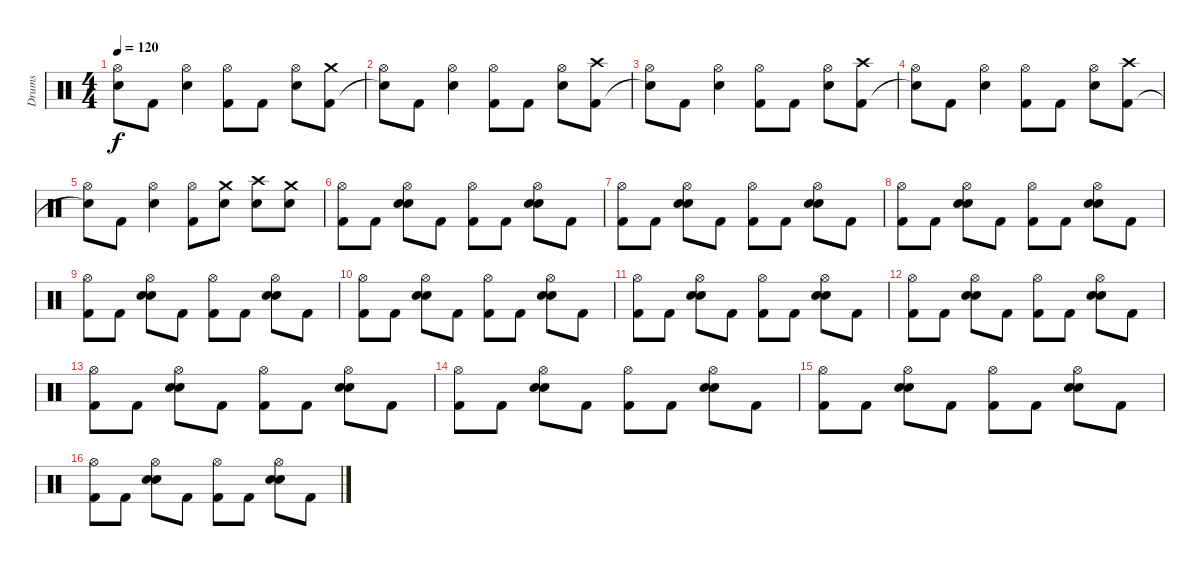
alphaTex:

\track ("Drums" "Drums") {instrument percussion}
\staff {score}
\articulation defaults
\ts (4 4)
\tempo 120
\clef neutral
\ks c
("Hi-Hat (open)" "Snare (hit)"{t}).8{dy f} "Kick (hit) 2".8 ("Hi-Hat (open)" "Electric Snare (hit)").4 ("Hi-Hat (open)" "Kick (hit) 2").8 "Kick (hit) 2".8 ("Hi-Hat (open)" "Electric Snare (hit)").8 ("Crash medium (hit)" "Kick (hit) 2").8 |
("Hi-Hat (open)" "Snare (hit)"{t}).8 "Kick (hit) 2".8 ("Hi-Hat (open)" "Electric Snare (hit)").4 ("Hi-Hat (open)" "Kick (hit) 2").8 "Kick (hit) 2".8 ("Hi-Hat (open)" "Electric Snare (hit)").8 ("Crash high (hit)" "Kick (hit) 2").8 |
("Hi-Hat (open)" "Snare (hit)"{t}).8 "Kick (hit) 2".8 ("Hi-Hat (open)" "Electric Snare (hit)").4 ("Hi-Hat (open)" "Kick (hit) 2").8 "Kick (hit) 2".8 ("Hi-Hat (open)" "Electric Snare (hit)").8 ("Crash high (hit)" "Kick (hit) 2").8 |
("Hi-Hat (open)" "Snare (hit)"{t}).8 "Kick (hit) 2".8 ("Hi-Hat (open)" "Electric Snare (hit)").4 ("Hi-Hat (open)" "Kick (hit) 2").8 "Kick (hit) 2".8 ("Hi-Hat (open)" "Electric Snare (hit)").8 ("Crash high (hit)" "Kick (hit) 2").8 |
("Hi-Hat (open)" "Snare (hit)"{t}).8 "Kick (hit) 2".8 ("Hi-Hat (open)" "Electric Snare (hit)").4 ("Hi-Hat (open)" "Kick (hit) 2").8 ("Crash medium (hit)" "Electric Snare (hit)").8 ("Crash high (hit)" "Electric Snare (hit)").8 ("Crash medium (hit)" "Electric Snare (hit)").8 |
("Hi-Hat (open)" "Kick (hit) 2").8 "Kick (hit) 2".8 ("Hi-Hat (open)" "Electric Snare (hit)" "Snare (hit) 2").8 "Kick (hit) 2".8 ("Hi-Hat (open)" "Kick (hit) 2").8 "Kick (hit) 2".8 ("Hi-Hat (open)" "Electric Snare (hit)" "Snare (hit) 2").8 "Kick (hit) 2".8 |
("Hi-Hat (open)" "Kick (hit) 2").8 "Kick (hit) 2".8 ("Hi-Hat (open)" "Electric Snare (hit)" "Snare (hit) 2").8 "Kick (hit) 2".8 ("Hi-Hat (open)" "Kick (hit) 2").8 "Kick (hit) 2".8 ("Hi-Hat (open)" "Electric Snare (hit)" "Snare (hit) 2").8 "Kick (hit) 2".8 |
("Hi-Hat (open)" "Kick (hit) 2").8 "Kick (hit) 2".8 ("Hi-Hat (open)" "Electric Snare (hit)" "Snare (hit) 2").8 "Kick (hit) 2".8 ("Hi-Hat (open)" "Kick (hit) 2").8 "Kick (hit) 2".8 ("Hi-Hat (open)" "Electric Snare (hit)" "Snare (hit) 2").8 "Kick (hit) 2".8 |
("Hi-Hat (open)" "Kick (hit) 2").8 "Kick (hit) 2".8 ("Hi-Hat (open)" "Electric Snare (hit)" "Snare (hit) 2").8 "Kick (hit) 2".8 ("Hi-Hat (open)" "Kick (hit) 2").8 "Kick (hit) 2".8 ("Hi-Hat (open)" "Electric Snare (hit)" "Snare (hit) 2").8 "Kick (hit) 2".8 |
("Hi-Hat (open)" "Kick (hit) 2").8 "Kick (hit) 2".8 ("Hi-Hat (open)" "Electric Snare (hit)" "Snare (hit) 2").8 "Kick (hit) 2".8 ("Hi-Hat (open)" "Kick (hit) 2").8 "Kick (hit) 2".8 ("Hi-Hat (open)" "Electric Snare (hit)" "Snare (hit) 2").8 "Kick (hit) 2".8 |
("Hi-Hat (open)" "Kick (hit) 2").8 "Kick (hit) 2".8 ("Hi-Hat (open)" "Electric Snare (hit)" "Snare (hit) 2").8 "Kick (hit) 2".8 ("Hi-Hat (open)" "Kick (hit) 2").8 "Kick (hit) 2".8 ("Hi-Hat (open)" "Electric Snare (hit)" "Snare (hit) 2").8 "Kick (hit) 2".8 |
("Hi-Hat (open)" "Kick (hit) 2").8 "Kick (hit) 2".8 ("Hi-Hat (open)" "Electric Snare (hit)" "Snare (hit) 2").8 "Kick (hit) 2".8 ("Hi-Hat (open)" "Kick (hit) 2").8 "Kick (hit) 2".8 ("Hi-Hat (open)" "Electric Snare (hit)" "Snare (hit) 2").8 "Kick (hit) 2".8 |
("Hi-Hat (open)" "Kick (hit) 2").8 "Kick (hit) 2".8 ("Hi-Hat (open)" "Electric Snare (hit)" "Snare (hit) 2").8 "Kick (hit) 2".8 ("Hi-Hat (open)" "Kick (hit) 2").8 "Kick (hit) 2".8 ("Hi-Hat (open)" "Electric Snare (hit)" "Snare (hit) 2").8 "Kick (hit) 2".8 |
("Hi-Hat (open)" "Kick (hit) 2").8 "Kick (hit) 2".8 ("Hi-Hat (open)" "Electric Snare (hit)" "Snare (hit) 2").8 "Kick (hit) 2".8 ("Hi-Hat (open)" "Kick (hit) 2").8 "Kick (hit) 2".8 ("Hi-Hat (open)" "Electric Snare (hit)" "Snare (hit) 2").8 "Kick (hit) 2".8 |
("Hi-Hat (open)" "Kick (hit) 2").8 "Kick (hit) 2".8 ("Hi-Hat (open)" "Electric Snare (hit)" "Snare (hit) 2").8 "Kick (hit) 2".8 ("Hi-Hat (open)" "Kick (hit) 2").8 "Kick (hit) 2".8 ("Hi-Hat (open)" "Electric Snare (hit)" "Snare (hit) 2").8 "Kick (hit) 2".8 |
("Hi-Hat (open)" "Kick (hit) 2").8 "Kick (hit) 2".8 ("Hi-Hat (open)" "Electric Snare (hit)" "Snare (hit) 2").8 "Kick (hit) 2".8 ("Hi-Hat (open)" "Kick (hit) 2").8 "Kick (hit) 2".8 ("Hi-Hat (open)" "Electric Snare (hit)" "Snare (hit) 2").8 "Kick (hit) 2".8
